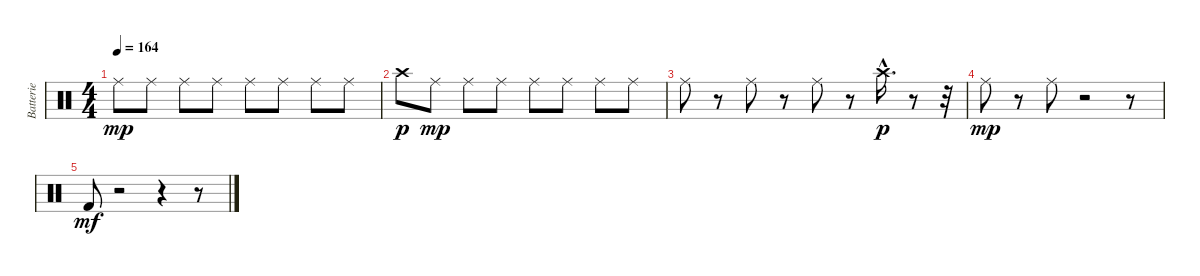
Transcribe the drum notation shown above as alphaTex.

\track ("Batterie" "Batterie") {instrument percussion}
\staff {score}
\articulation defaults
\ts (4 4)
\tempo 164
\clef neutral
\ks c "Ride (middle)".8{dy mp} "Ride (middle)".8 "Ride (middle)".8 "Ride (middle)".8 "Ride (middle)".8 "Ride (middle)".8 "Ride (middle)".8 "Ride (middle)".8
|
"Crash high (hit)".8{dy p} "Ride (middle)".8{dy mp} "Ride (middle)".8 "Ride (middle)".8 "Ride (middle)".8 "Ride (middle)".8 "Ride (middle)".8 "Ride (middle)".8 |
"Ride (middle)".8 r.8 "Ride (middle)".8 r.8 "Ride (middle)".8 r.8 "Crash high (hit)"{hac}.16{d dy p} r.8 r.32 |
"Ride (middle)".8{dy mp} r.8 "Ride (middle)".8 r.2 r.8 |
"Kick (hit) 2".8{dy mf} r.2 r.4 r.8
